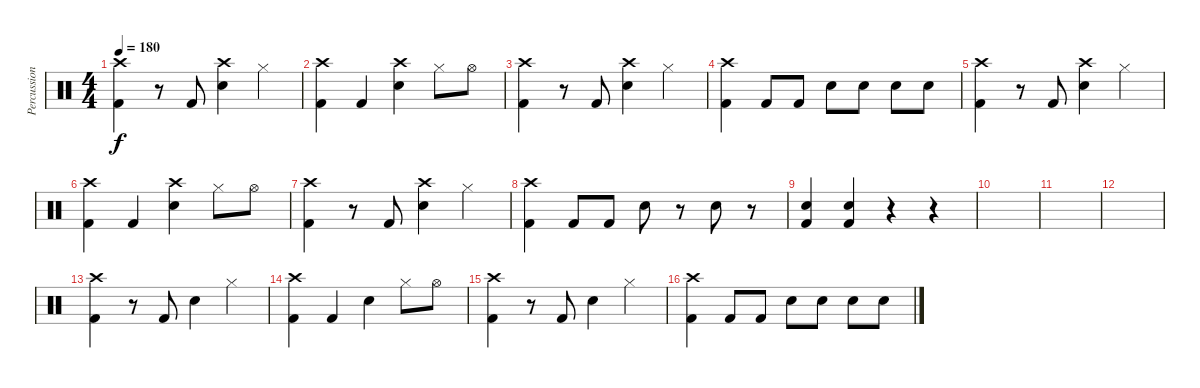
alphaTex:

\track ("Percussion" "Percussion") {instrument percussion}
\staff {score}
\articulation defaults
\ts (4 4)
\tempo 180
\clef neutral
\ks c
("Crash high (hit)" "Kick (hit) 2").4{dy f} r.8 "Kick (hit) 2".8 ("Crash high (hit)" "Electric Snare (hit)").4 "Hi-Hat (closed)".4 |
("Crash high (hit)" "Kick (hit) 2").4 "Kick (hit) 2".4 ("Crash high (hit)" "Electric Snare (hit)").4 "Hi-Hat (closed)".8 "Hi-Hat (open)".8 |
("Crash high (hit)" "Kick (hit) 2").4 r.8 "Kick (hit) 2".8 ("Crash high (hit)" "Electric Snare (hit)").4 "Hi-Hat (closed)".4 |
("Crash high (hit)" "Kick (hit) 2").4 "Kick (hit) 2".8 "Kick (hit) 2".8 "Electric Snare (hit)".8 "Electric Snare (hit)".8 "Electric Snare (hit)".8 "Electric Snare (hit)".8 |
("Crash high (hit)" "Kick (hit) 2").4 r.8 "Kick (hit) 2".8 ("Crash high (hit)" "Electric Snare (hit)").4 "Hi-Hat (closed)".4 |
("Crash high (hit)" "Kick (hit) 2").4 "Kick (hit) 2".4 ("Crash high (hit)" "Electric Snare (hit)").4 "Hi-Hat (closed)".8 "Hi-Hat (open)".8 |
("Crash high (hit)" "Kick (hit) 2").4 r.8 "Kick (hit) 2".8 ("Crash high (hit)" "Electric Snare (hit)").4 "Hi-Hat (closed)".4 |
("Crash high (hit)" "Kick (hit) 2").4 "Kick (hit) 2".8 "Kick (hit) 2".8 "Electric Snare (hit)".8 r.8 "Electric Snare (hit)".8 r.8 |
("Electric Snare (hit)" "Kick (hit) 2").4 ("Electric Snare (hit)" "Kick (hit) 2").4 r.4 r.4 |
|
|
|
("Crash high (hit)" "Kick (hit) 2").4 r.8 "Kick (hit) 2".8 "Electric Snare (hit)".4 "Hi-Hat (closed)".4 |
("Crash high (hit)" "Kick (hit) 2").4 "Kick (hit) 2".4 "Electric Snare (hit)".4 "Hi-Hat (closed)".8 "Hi-Hat (open)".8 |
("Crash high (hit)" "Kick (hit) 2").4 r.8 "Kick (hit) 2".8 "Electric Snare (hit)".4 "Hi-Hat (closed)".4 |
("Crash high (hit)" "Kick (hit) 2").4 "Kick (hit) 2".8 "Kick (hit) 2".8 "Electric Snare (hit)".8 "Electric Snare (hit)".8 "Electric Snare (hit)".8 "Electric Snare (hit)".8
